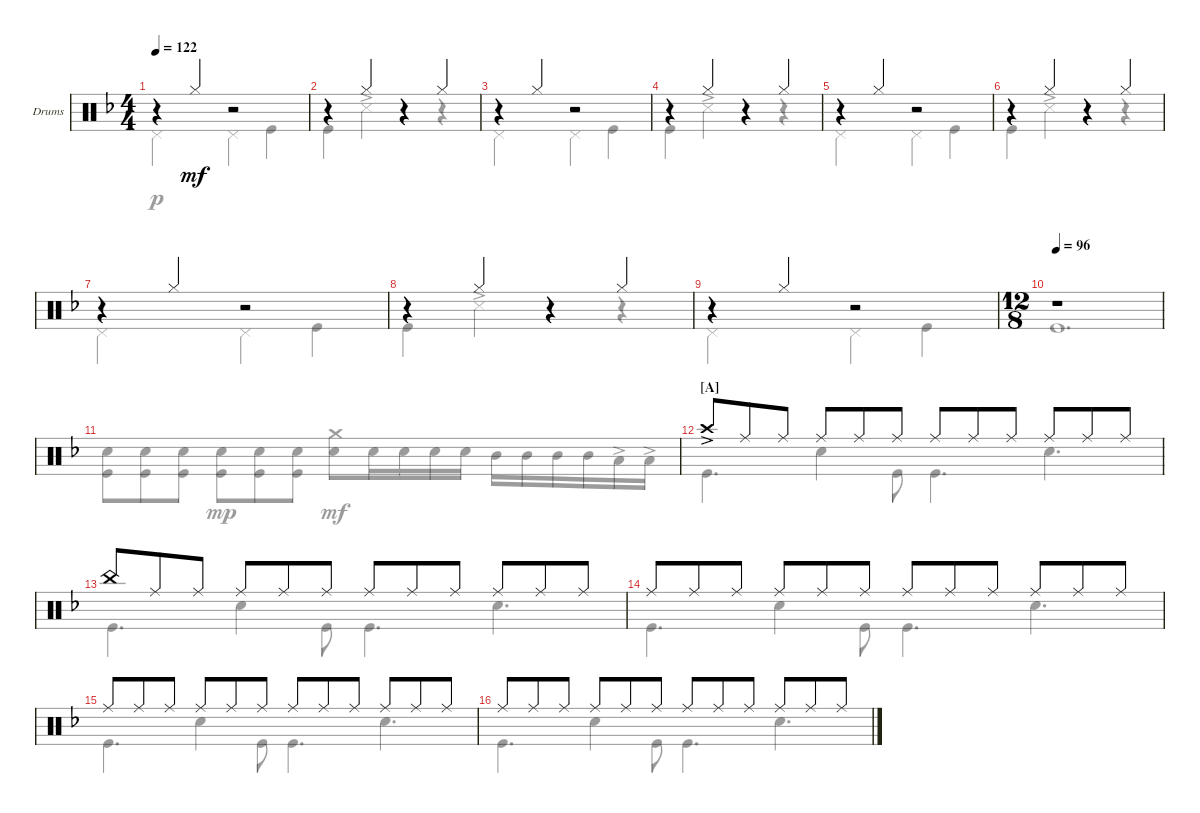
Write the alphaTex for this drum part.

\defaultSystemsLayout 4
\bracketExtendMode nobrackets
\firstSystemTrackNameOrientation horizontal
\otherSystemsTrackNameOrientation horizontal
\track ("Drumkit" "Drums") {multiBarRest instrument percussion}
\staff {score}
\articulation defaults
\voice
\ts (4 4)
\tempo 122
\clef neutral
\ks dminor
r.4{dy mf} "Hi-Hat (closed)".4 r.2 |
r.4 "Hi-Hat (closed)".4 r.4 "Hi-Hat (closed)".4 |
r.4 "Hi-Hat (closed)".4 r.2 |
r.4 "Hi-Hat (closed)".4 r.4 "Hi-Hat (closed)".4 |
r.4 "Hi-Hat (closed)".4 r.2 |
r.4 "Hi-Hat (closed)".4 r.4 "Hi-Hat (closed)".4 |
r.4 "Hi-Hat (closed)".4 r.2 |
r.4 "Hi-Hat (closed)".4 r.4 "Hi-Hat (closed)".4 |
r.4 "Hi-Hat (closed)".4 r.2 |
\ts (12 8)
\tempo 96
r.1 |
|
\section ("A" "")
"Crash high (hit)"{ac}.8 "Ride (middle)".8 "Ride (middle)".8 "Ride (middle)".8 "Ride (middle)".8 "Ride (middle)".8 "Ride (middle)".8 "Ride (middle)".8 "Ride (middle)".8 "Ride (middle)".8 "Ride (middle)".8 "Ride (middle)".8 |
"China (hit)".8 "Ride (middle)".8 "Ride (middle)".8 "Ride (middle)".8 "Ride (middle)".8 "Ride (middle)".8 "Ride (middle)".8 "Ride (middle)".8 "Ride (middle)".8 "Ride (middle)".8 "Ride (middle)".8 "Ride (middle)".8 |
"Ride (middle)".8 "Ride (middle)".8 "Ride (middle)".8 "Ride (middle)".8 "Ride (middle)".8 "Ride (middle)".8 "Ride (middle)".8 "Ride (middle)".8 "Ride (middle)".8 "Ride (middle)".8 "Ride (middle)".8 "Ride (middle)".8 |
"Ride (middle)".8 "Ride (middle)".8 "Ride (middle)".8 "Ride (middle)".8 "Ride (middle)".8 "Ride (middle)".8 "Ride (middle)".8 "Ride (middle)".8 "Ride (middle)".8 "Ride (middle)".8 "Ride (middle)".8 "Ride (middle)".8 |
"Ride (middle)".8 "Ride (middle)".8 "Ride (middle)".8 "Ride (middle)".8 "Ride (middle)".8 "Ride (middle)".8 "Ride (middle)".8 "Ride (middle)".8 "Ride (middle)".8 "Ride (middle)".8 "Ride (middle)".8 "Ride (middle)".8
\voice
\clef neutral
\ottava regular
\simile none
\ks dminor "Pedal Hi-Hat (hit)".2{dy p} "Pedal Hi-Hat (hit)".4 "Kick (hit)".4
|
"Kick (hit)".4 "Snare (side stick) 3"{ac}.4 r.4 r.4 |
"Pedal Hi-Hat (hit)".2 "Pedal Hi-Hat (hit)".4 "Kick (hit)".4 |
"Kick (hit)".4 "Snare (side stick) 3"{ac}.4 r.4 r.4 |
"Pedal Hi-Hat (hit)".2 "Pedal Hi-Hat (hit)".4 "Kick (hit)".4 |
"Kick (hit)".4 "Snare (side stick) 3"{ac}.4 r.4 r.4 |
"Pedal Hi-Hat (hit)".2 "Pedal Hi-Hat (hit)".4 "Kick (hit)".4 |
"Kick (hit)".4 "Snare (side stick) 3"{ac}.4 r.4 r.4 |
"Pedal Hi-Hat (hit)".2 "Pedal Hi-Hat (hit)".4 "Kick (hit)".4 |
"Kick (hit)".1{d} |
("Kick (hit)" "Snare (hit) 2").8 ("Kick (hit)" "Snare (hit) 2").8 ("Kick (hit)" "Snare (hit) 2").8 ("Kick (hit)" "Snare (hit) 2").8{dy mp} ("Kick (hit)" "Snare (hit) 2").8 ("Kick (hit)" "Snare (hit) 2").8 ("Crash medium (hit)" "Snare (hit) 2").8{dy mf} "Snare (hit) 2".16 "Snare (hit) 2".16 "Snare (hit) 2".16 "Snare (hit) 2".16 "Mid Tom (hit)".16 "Mid Tom (hit)".16 "Mid Tom (hit)".16 "Mid Tom (hit)".16 "Low Tom (hit)"{ac}.16 "Low Tom (hit)"{ac}.16 |
"Kick (hit)".4{d} "Snare (hit) 2".4 "Kick (hit)".8 "Kick (hit)".4{d} "Snare (hit) 2".4{d} |
"Kick (hit)".4{d} "Snare (hit) 2".4 "Kick (hit)".8 "Kick (hit)".4{d} "Snare (hit) 2".4{d} |
"Kick (hit)".4{d} "Snare (hit) 2".4 "Kick (hit)".8 "Kick (hit)".4{d} "Snare (hit) 2".4{d} |
"Kick (hit)".4{d} "Snare (hit) 2".4 "Kick (hit)".8 "Kick (hit)".4{d} "Snare (hit) 2".4{d} |
"Kick (hit)".4{d} "Snare (hit) 2".4 "Kick (hit)".8 "Kick (hit)".4{d} "Snare (hit) 2".4{d}
